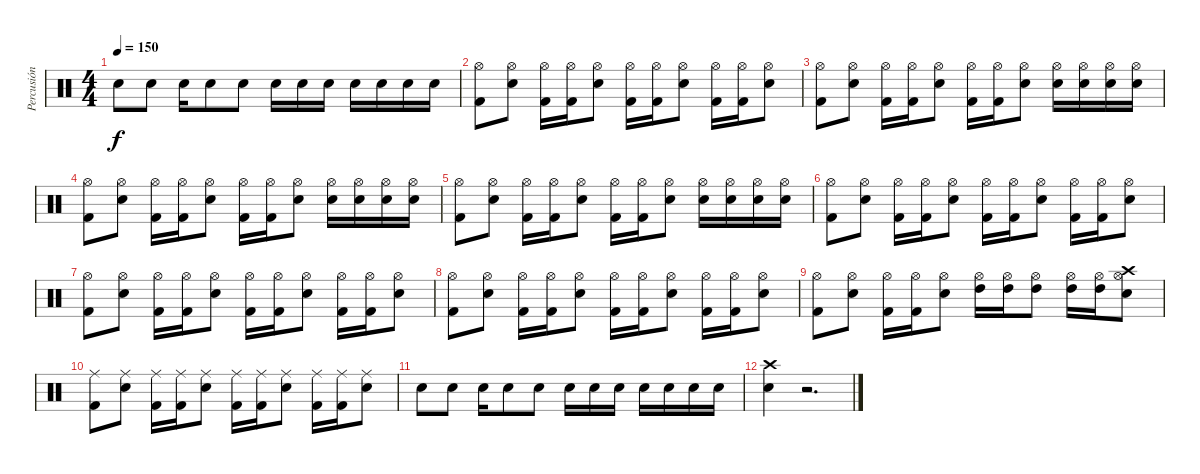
\track ("Percusión" "Percusión") {instrument percussion}
\staff {score}
\articulation defaults
\ts (4 4)
\tempo 150
\clef neutral
\ks c "Electric Snare (hit)".8{dy f} "Electric Snare (hit)".8 "Electric Snare (hit)".16 "Electric Snare (hit)".8 "Electric Snare (hit)".8 "Electric Snare (hit)".16 "Electric Snare (hit)".16 "Electric Snare (hit)".16 "Electric Snare (hit)".16 "Electric Snare (hit)".16 "Electric Snare (hit)".16 "Electric Snare (hit)".16
|
("Kick (hit) 2" "Hi-Hat (open)").8 ("Electric Snare (hit)" "Hi-Hat (open)").8 ("Kick (hit) 2" "Hi-Hat (open)").16 ("Kick (hit) 2" "Hi-Hat (open)").16 ("Electric Snare (hit)" "Hi-Hat (open)").8 ("Kick (hit) 2" "Hi-Hat (open)").16 ("Kick (hit) 2" "Hi-Hat (open)").16 ("Electric Snare (hit)" "Hi-Hat (open)").8 ("Kick (hit) 2" "Hi-Hat (open)").16 ("Kick (hit) 2" "Hi-Hat (open)").16 ("Electric Snare (hit)" "Hi-Hat (open)").8 |
("Kick (hit) 2" "Hi-Hat (open)").8 ("Electric Snare (hit)" "Hi-Hat (open)").8 ("Kick (hit) 2" "Hi-Hat (open)").16 ("Kick (hit) 2" "Hi-Hat (open)").16 ("Electric Snare (hit)" "Hi-Hat (open)").8 ("Kick (hit) 2" "Hi-Hat (open)").16 ("Kick (hit) 2" "Hi-Hat (open)").16 ("Electric Snare (hit)" "Hi-Hat (open)").8 ("Electric Snare (hit)" "Hi-Hat (open)").16 ("Electric Snare (hit)" "Hi-Hat (open)").16 ("Electric Snare (hit)" "Hi-Hat (open)").16 ("Electric Snare (hit)" "Hi-Hat (open)").16 |
("Kick (hit) 2" "Hi-Hat (open)").8 ("Electric Snare (hit)" "Hi-Hat (open)").8 ("Kick (hit) 2" "Hi-Hat (open)").16 ("Kick (hit) 2" "Hi-Hat (open)").16 ("Electric Snare (hit)" "Hi-Hat (open)").8 ("Kick (hit) 2" "Hi-Hat (open)").16 ("Kick (hit) 2" "Hi-Hat (open)").16 ("Electric Snare (hit)" "Hi-Hat (open)").8 ("Electric Snare (hit)" "Hi-Hat (open)").16 ("Electric Snare (hit)" "Hi-Hat (open)").16 ("Electric Snare (hit)" "Hi-Hat (open)").16 ("Electric Snare (hit)" "Hi-Hat (open)").16 |
("Kick (hit) 2" "Hi-Hat (open)").8 ("Electric Snare (hit)" "Hi-Hat (open)").8 ("Kick (hit) 2" "Hi-Hat (open)").16 ("Kick (hit) 2" "Hi-Hat (open)").16 ("Electric Snare (hit)" "Hi-Hat (open)").8 ("Kick (hit) 2" "Hi-Hat (open)").16 ("Kick (hit) 2" "Hi-Hat (open)").16 ("Electric Snare (hit)" "Hi-Hat (open)").8 ("Electric Snare (hit)" "Hi-Hat (open)").16 ("Electric Snare (hit)" "Hi-Hat (open)").16 ("Electric Snare (hit)" "Hi-Hat (open)").16 ("Electric Snare (hit)" "Hi-Hat (open)").16 |
("Kick (hit) 2" "Hi-Hat (open)").8 ("Electric Snare (hit)" "Hi-Hat (open)").8 ("Kick (hit) 2" "Hi-Hat (open)").16 ("Kick (hit) 2" "Hi-Hat (open)").16 ("Electric Snare (hit)" "Hi-Hat (open)").8 ("Kick (hit) 2" "Hi-Hat (open)").16 ("Kick (hit) 2" "Hi-Hat (open)").16 ("Electric Snare (hit)" "Hi-Hat (open)").8 ("Kick (hit) 2" "Hi-Hat (open)").16 ("Kick (hit) 2" "Hi-Hat (open)").16 ("Electric Snare (hit)" "Hi-Hat (open)").8 |
("Kick (hit) 2" "Hi-Hat (open)").8 ("Electric Snare (hit)" "Hi-Hat (open)").8 ("Kick (hit) 2" "Hi-Hat (open)").16 ("Kick (hit) 2" "Hi-Hat (open)").16 ("Electric Snare (hit)" "Hi-Hat (open)").8 ("Kick (hit) 2" "Hi-Hat (open)").16 ("Kick (hit) 2" "Hi-Hat (open)").16 ("Electric Snare (hit)" "Hi-Hat (open)").8 ("Kick (hit) 2" "Hi-Hat (open)").16 ("Kick (hit) 2" "Hi-Hat (open)").16 ("Electric Snare (hit)" "Hi-Hat (open)").8 |
("Kick (hit) 2" "Hi-Hat (open)").8 ("Electric Snare (hit)" "Hi-Hat (open)").8 ("Kick (hit) 2" "Hi-Hat (open)").16 ("Kick (hit) 2" "Hi-Hat (open)").16 ("Electric Snare (hit)" "Hi-Hat (open)").8 ("Kick (hit) 2" "Hi-Hat (open)").16 ("Kick (hit) 2" "Hi-Hat (open)").16 ("Electric Snare (hit)" "Hi-Hat (open)").8 ("Kick (hit) 2" "Hi-Hat (open)").16 ("Kick (hit) 2" "Hi-Hat (open)").16 ("Electric Snare (hit)" "Hi-Hat (open)").8 |
("Kick (hit) 2" "Hi-Hat (open)").8 ("Electric Snare (hit)" "Hi-Hat (open)").8 ("Kick (hit) 2" "Hi-Hat (open)").16 ("Kick (hit) 2" "Hi-Hat (open)").16 ("Electric Snare (hit)" "Hi-Hat (open)").8 ("High Tom (hit)" "Hi-Hat (open)").16 ("High Tom (hit)" "Hi-Hat (open)").16 ("High Tom (hit)" "Hi-Hat (open)").8 ("High Tom (hit)" "Hi-Hat (open)").16 ("High Tom (hit)" "Hi-Hat (open)").16 ("Crash high (hit)" "Electric Snare (hit)" "Hi-Hat (open)").8 |
("Kick (hit) 2" "Ride (middle)").8 ("Electric Snare (hit)" "Ride (middle)").8 ("Kick (hit) 2" "Ride (middle)").16 ("Kick (hit) 2" "Ride (middle)").16 ("Electric Snare (hit)" "Ride (middle)").8 ("Kick (hit) 2" "Ride (middle)").16 ("Kick (hit) 2" "Ride (middle)").16 ("Electric Snare (hit)" "Ride (middle)").8 ("Kick (hit) 2" "Ride (middle)").16 ("Kick (hit) 2" "Ride (middle)").16 ("Electric Snare (hit)" "Ride (middle)").8 |
"Electric Snare (hit)".8 "Electric Snare (hit)".8 "Electric Snare (hit)".16 "Electric Snare (hit)".8 "Electric Snare (hit)".8 "Electric Snare (hit)".16 "Electric Snare (hit)".16 "Electric Snare (hit)".16 "Electric Snare (hit)".16 "Electric Snare (hit)".16 "Electric Snare (hit)".16 "Electric Snare (hit)".16 |
("Crash high (hit)" "Electric Snare (hit)").4 r.2{d}
